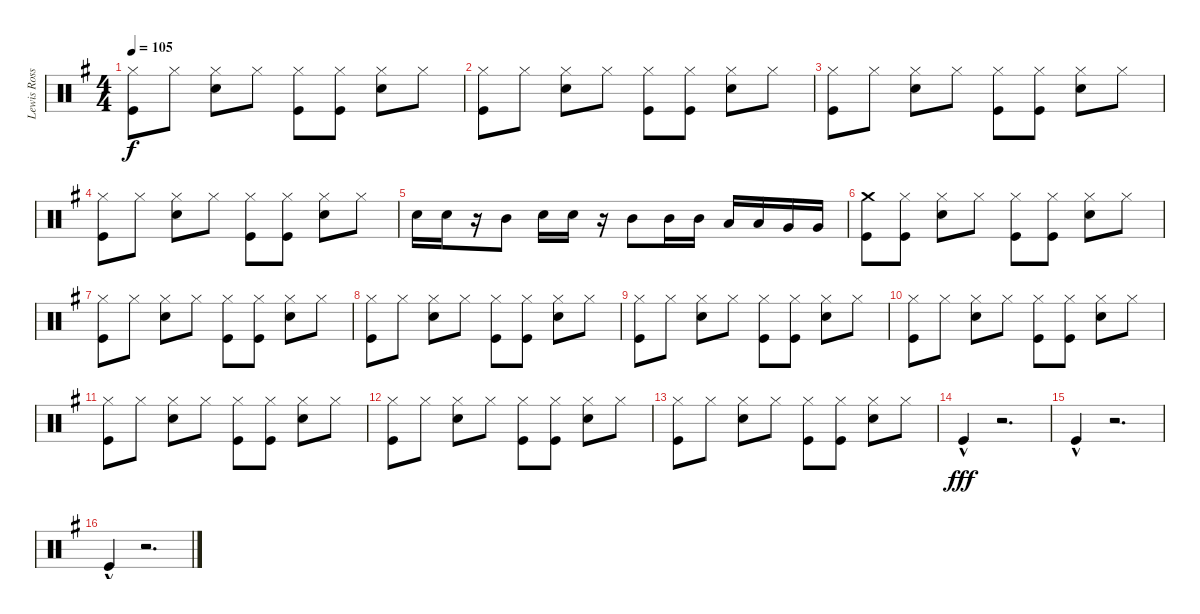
\track ("Lewis Ross Drums" "Lewis Ross") {instrument percussion}
\staff {score}
\articulation defaults
\ts (4 4)
\tempo 105
\clef neutral
\ks g
("Hi-Hat (closed)" "Kick (hit)").8{dy f} "Hi-Hat (closed)".8 ("Hi-Hat (closed)" "Snare (hit) 2").8 "Hi-Hat (closed)".8 ("Hi-Hat (closed)" "Kick (hit)").8 ("Hi-Hat (closed)" "Kick (hit)").8 ("Hi-Hat (closed)" "Snare (hit) 2").8 "Hi-Hat (closed)".8 |
("Hi-Hat (closed)" "Kick (hit)").8 "Hi-Hat (closed)".8 ("Hi-Hat (closed)" "Snare (hit) 2").8 "Hi-Hat (closed)".8 ("Hi-Hat (closed)" "Kick (hit)").8 ("Hi-Hat (closed)" "Kick (hit)").8 ("Hi-Hat (closed)" "Snare (hit) 2").8 "Hi-Hat (closed)".8 |
("Hi-Hat (closed)" "Kick (hit)").8 "Hi-Hat (closed)".8 ("Hi-Hat (closed)" "Snare (hit) 2").8 "Hi-Hat (closed)".8 ("Hi-Hat (closed)" "Kick (hit)").8 ("Hi-Hat (closed)" "Kick (hit)").8 ("Hi-Hat (closed)" "Snare (hit) 2").8 "Hi-Hat (closed)".8 |
("Hi-Hat (closed)" "Kick (hit)").8 "Hi-Hat (closed)".8 ("Hi-Hat (closed)" "Snare (hit) 2").8 "Hi-Hat (closed)".8 ("Hi-Hat (closed)" "Kick (hit)").8 ("Hi-Hat (closed)" "Kick (hit)").8 ("Hi-Hat (closed)" "Snare (hit) 2").8 "Hi-Hat (closed)".8 |
"Snare (hit) 2".16 "Snare (hit) 2".16 r.16 "Mid Tom (hit)".8 "Snare (hit) 2".16 "Snare (hit) 2".16 r.16 "Mid Tom (hit)".8 "Mid Tom (hit)".16 "Mid Tom (hit)".16 "Low Tom (hit)".16 "Low Tom (hit)".16 "Very Low Tom (hit)".16 "Very Low Tom (hit)".16 |
("Crash medium (hit)" "Kick (hit)").8 ("Hi-Hat (closed)" "Kick (hit)").8 ("Hi-Hat (closed)" "Snare (hit) 2").8 "Hi-Hat (closed)".8 ("Hi-Hat (closed)" "Kick (hit)").8 ("Hi-Hat (closed)" "Kick (hit)").8 ("Hi-Hat (closed)" "Snare (hit) 2").8 "Hi-Hat (closed)".8 |
("Hi-Hat (closed)" "Kick (hit)").8 "Hi-Hat (closed)".8 ("Hi-Hat (closed)" "Snare (hit) 2").8 "Hi-Hat (closed)".8 ("Hi-Hat (closed)" "Kick (hit)").8 ("Hi-Hat (closed)" "Kick (hit)").8 ("Hi-Hat (closed)" "Snare (hit) 2").8 "Hi-Hat (closed)".8 |
("Hi-Hat (closed)" "Kick (hit)").8 "Hi-Hat (closed)".8 ("Hi-Hat (closed)" "Snare (hit) 2").8 "Hi-Hat (closed)".8 ("Hi-Hat (closed)" "Kick (hit)").8 ("Hi-Hat (closed)" "Kick (hit)").8 ("Hi-Hat (closed)" "Snare (hit) 2").8 "Hi-Hat (closed)".8 |
("Hi-Hat (closed)" "Kick (hit)").8 "Hi-Hat (closed)".8 ("Hi-Hat (closed)" "Snare (hit) 2").8 "Hi-Hat (closed)".8 ("Hi-Hat (closed)" "Kick (hit)").8 ("Hi-Hat (closed)" "Kick (hit)").8 ("Hi-Hat (closed)" "Snare (hit) 2").8 "Hi-Hat (closed)".8 |
("Hi-Hat (closed)" "Kick (hit)").8 "Hi-Hat (closed)".8 ("Hi-Hat (closed)" "Snare (hit) 2").8 "Hi-Hat (closed)".8 ("Hi-Hat (closed)" "Kick (hit)").8 ("Hi-Hat (closed)" "Kick (hit)").8 ("Hi-Hat (closed)" "Snare (hit) 2").8 "Hi-Hat (closed)".8 |
("Hi-Hat (closed)" "Kick (hit)").8 "Hi-Hat (closed)".8 ("Hi-Hat (closed)" "Snare (hit) 2").8 "Hi-Hat (closed)".8 ("Hi-Hat (closed)" "Kick (hit)").8 ("Hi-Hat (closed)" "Kick (hit)").8 ("Hi-Hat (closed)" "Snare (hit) 2").8 "Hi-Hat (closed)".8 |
("Hi-Hat (closed)" "Kick (hit)").8 "Hi-Hat (closed)".8 ("Hi-Hat (closed)" "Snare (hit) 2").8 "Hi-Hat (closed)".8 ("Hi-Hat (closed)" "Kick (hit)").8 ("Hi-Hat (closed)" "Kick (hit)").8 ("Hi-Hat (closed)" "Snare (hit) 2").8 "Hi-Hat (closed)".8 |
("Hi-Hat (closed)" "Kick (hit)").8 "Hi-Hat (closed)".8 ("Hi-Hat (closed)" "Snare (hit) 2").8 "Hi-Hat (closed)".8 ("Hi-Hat (closed)" "Kick (hit)").8 ("Hi-Hat (closed)" "Kick (hit)").8 ("Hi-Hat (closed)" "Snare (hit) 2").8 "Hi-Hat (closed)".8 |
"Kick (hit)"{hac}.4{dy fff volume 16} r.2{d} |
"Kick (hit)"{hac}.4 r.2{d} |
"Kick (hit)"{hac}.4 r.2{d}
